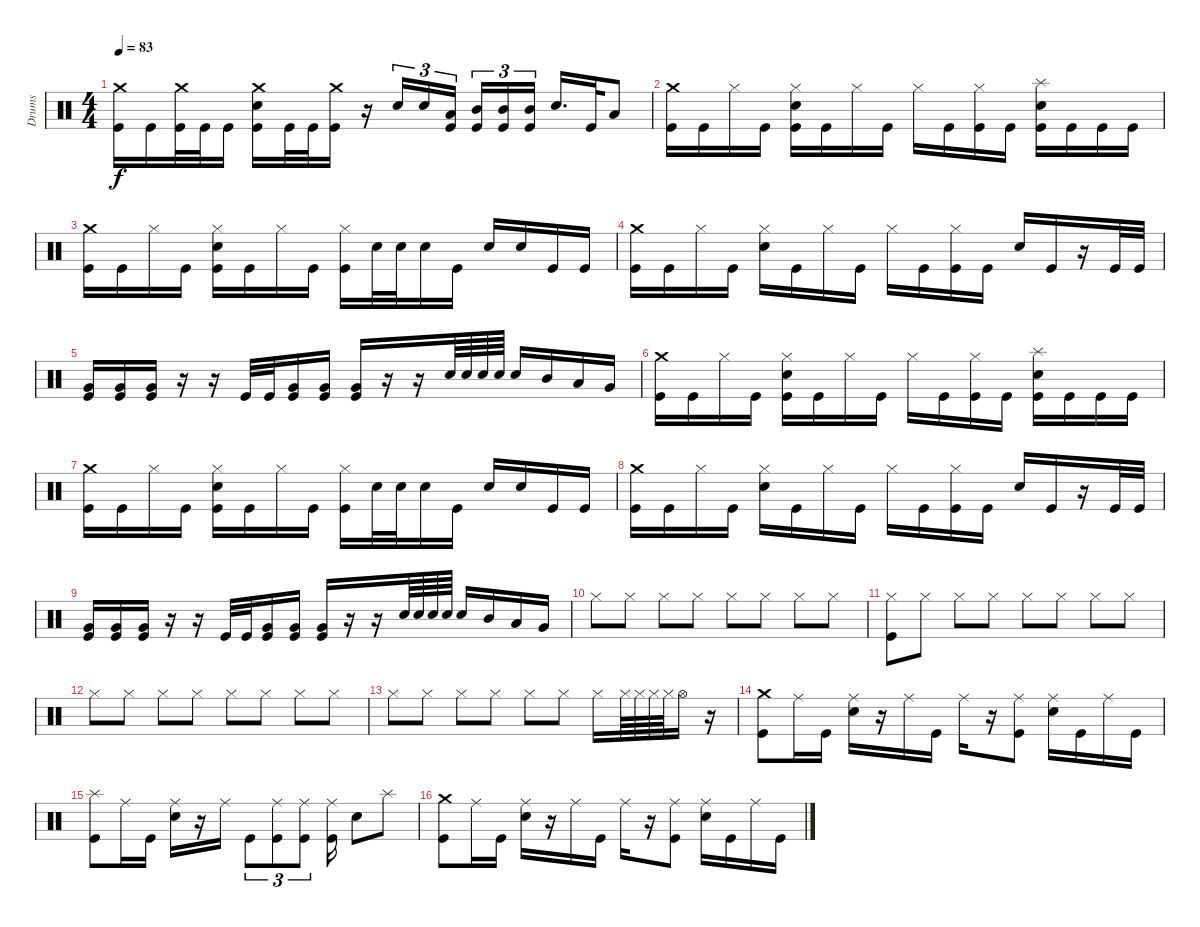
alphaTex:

\track ("Drums" "Drums") {instrument percussion}
\staff {score}
\articulation defaults
\ts (4 4)
\tempo 83
\clef neutral
\ks c
("Crash medium (hit)" "Kick (hit)").16{dy f} "Kick (hit)".16 ("Crash medium (hit)" "Kick (hit)").32 "Kick (hit)".32 "Kick (hit)".16 ("Crash medium (hit)" "Snare (hit) 2" "Kick (hit)").16 "Kick (hit)".32 "Kick (hit)".32 ("Crash medium (hit)" "Kick (hit)").16 r.16 "Snare (hit) 2".16{tu (3 2)} "Snare (hit) 2".16{tu (3 2)} ("Low Tom (hit)" "Kick (hit)").16{tu (3 2) beam splitsecondary} ("Mid Tom (hit)" "Kick (hit)").16{tu (3 2)} ("Mid Tom (hit)" "Kick (hit)").16{tu (3 2)} ("Mid Tom (hit)" "Kick (hit)").16{tu (3 2)} "Snare (hit) 2".16{d} "Kick (hit)".32 "Low Floor Tom (hit)".8 |
("Crash medium (hit)" "Kick (hit)").16 "Kick (hit)".16 "Hi-Hat (closed)".16 "Kick (hit)".16 ("Hi-Hat (closed)" "Snare (hit) 2" "Kick (hit)").16 "Kick (hit)".16 "Hi-Hat (closed)".16 "Kick (hit)".16 "Hi-Hat (closed)".16 "Kick (hit)".16 ("Hi-Hat (closed)" "Kick (hit)").16 "Kick (hit)".16 ("Splash (hit)" "Snare (hit) 2" "Kick (hit)").16 "Kick (hit)".16 "Kick (hit)".16 "Kick (hit)".16 |
("Crash medium (hit)" "Kick (hit)").16 "Kick (hit)".16 "Hi-Hat (closed)".16 "Kick (hit)".16 ("Hi-Hat (closed)" "Snare (hit) 2" "Kick (hit)").16 "Kick (hit)".16 "Hi-Hat (closed)".16 "Kick (hit)".16 ("Hi-Hat (closed)" "Kick (hit)").16 "Snare (hit) 2".32 "Snare (hit) 2".32 "Snare (hit) 2".16 "Kick (hit)".16 "Snare (hit) 2".16 "Snare (hit) 2".16 "Kick (hit)".16 "Kick (hit)".16 |
("Crash medium (hit)" "Kick (hit)").16 "Kick (hit)".16 "Hi-Hat (closed)".16 "Kick (hit)".16 ("Hi-Hat (closed)" "Snare (hit) 2").16 "Kick (hit)".16 "Hi-Hat (closed)".16 "Kick (hit)".16 "Hi-Hat (closed)".16 "Kick (hit)".16 ("Hi-Hat (closed)" "Kick (hit)").16 "Kick (hit)".16 "Snare (hit) 2".16 "Kick (hit)".16 r.16 "Kick (hit)".32 "Kick (hit)".32 |
("Very Low Tom (hit)" "Kick (hit)").16 ("Very Low Tom (hit)" "Kick (hit)").16 ("Very Low Tom (hit)" "Kick (hit)").16 r.16 r.16 "Kick (hit)".32 "Kick (hit)".32 ("Very Low Tom (hit)" "Kick (hit)").16 ("Very Low Tom (hit)" "Kick (hit)").16 ("Very Low Tom (hit)" "Kick (hit)").16 r.16 r.16 "Snare (hit) 2".64 "Snare (hit) 2".64 "Snare (hit) 2".64 "Snare (hit) 2".64 "Snare (hit) 2".16 "Mid Tom (hit)".16 "Low Tom (hit)".16 "Very Low Tom (hit)".16 |
("Crash medium (hit)" "Kick (hit)").16 "Kick (hit)".16 "Hi-Hat (closed)".16 "Kick (hit)".16 ("Hi-Hat (closed)" "Snare (hit) 2" "Kick (hit)").16 "Kick (hit)".16 "Hi-Hat (closed)".16 "Kick (hit)".16 "Hi-Hat (closed)".16 "Kick (hit)".16 ("Hi-Hat (closed)" "Kick (hit)").16 "Kick (hit)".16 ("Splash (hit)" "Snare (hit) 2" "Kick (hit)").16 "Kick (hit)".16 "Kick (hit)".16 "Kick (hit)".16 |
("Crash medium (hit)" "Kick (hit)").16 "Kick (hit)".16 "Hi-Hat (closed)".16 "Kick (hit)".16 ("Hi-Hat (closed)" "Snare (hit) 2" "Kick (hit)").16 "Kick (hit)".16 "Hi-Hat (closed)".16 "Kick (hit)".16 ("Hi-Hat (closed)" "Kick (hit)").16 "Snare (hit) 2".32 "Snare (hit) 2".32 "Snare (hit) 2".16 "Kick (hit)".16 "Snare (hit) 2".16 "Snare (hit) 2".16 "Kick (hit)".16 "Kick (hit)".16 |
("Crash medium (hit)" "Kick (hit)").16 "Kick (hit)".16 "Hi-Hat (closed)".16 "Kick (hit)".16 ("Hi-Hat (closed)" "Snare (hit) 2").16 "Kick (hit)".16 "Hi-Hat (closed)".16 "Kick (hit)".16 "Hi-Hat (closed)".16 "Kick (hit)".16 ("Hi-Hat (closed)" "Kick (hit)").16 "Kick (hit)".16 "Snare (hit) 2".16 "Kick (hit)".16 r.16 "Kick (hit)".32 "Kick (hit)".32 |
("Very Low Tom (hit)" "Kick (hit)").16 ("Very Low Tom (hit)" "Kick (hit)").16 ("Very Low Tom (hit)" "Kick (hit)").16 r.16 r.16 "Kick (hit)".32 "Kick (hit)".32 ("Very Low Tom (hit)" "Kick (hit)").16 ("Very Low Tom (hit)" "Kick (hit)").16 ("Very Low Tom (hit)" "Kick (hit)").16 r.16 r.16 "Snare (hit) 2".64 "Snare (hit) 2".64 "Snare (hit) 2".64 "Snare (hit) 2".64 "Snare (hit) 2".16 "Mid Tom (hit)".16 "Low Tom (hit)".16 "Very Low Tom (hit)".16 |
"Hi-Hat (closed)".8 "Hi-Hat (closed)".8 "Hi-Hat (closed)".8 "Hi-Hat (closed)".8 "Hi-Hat (closed)".8 "Hi-Hat (closed)".8 "Hi-Hat (closed)".8 "Hi-Hat (closed)".8 |
("Hi-Hat (closed)" "Kick (hit)").8 "Hi-Hat (closed)".8 "Hi-Hat (closed)".8 "Hi-Hat (closed)".8 "Hi-Hat (closed)".8 "Hi-Hat (closed)".8 "Hi-Hat (closed)".8 "Hi-Hat (closed)".8 |
"Hi-Hat (closed)".8 "Hi-Hat (closed)".8 "Hi-Hat (closed)".8 "Hi-Hat (closed)".8 "Hi-Hat (closed)".8 "Hi-Hat (closed)".8 "Hi-Hat (closed)".8 "Hi-Hat (closed)".8 |
"Hi-Hat (closed)".8 "Hi-Hat (closed)".8 "Hi-Hat (closed)".8 "Hi-Hat (closed)".8 "Hi-Hat (closed)".8 "Hi-Hat (closed)".8 "Hi-Hat (closed)".16 "Hi-Hat (closed)".64 "Hi-Hat (closed)".64 "Hi-Hat (closed)".64 "Hi-Hat (closed)".64 "Hi-Hat (open)".16 r.16 |
("Crash medium (hit)" "Kick (hit)").8 "Ride (middle)".16 "Kick (hit)".16 ("Ride (middle)" "Snare (hit) 2").16 r.16 "Ride (middle)".16 "Kick (hit)".16 "Ride (middle)".16 r.16 ("Ride (middle)" "Kick (hit)").8 ("Ride (middle)" "Snare (hit) 2").16 "Kick (hit)".16 "Ride (middle)".16 "Kick (hit)".16 |
("Splash (hit)" "Kick (hit)").8 "Ride (middle)".16 "Kick (hit)".16 ("Ride (middle)" "Snare (hit) 2").16 r.16 "Ride (middle)".16 "Kick (hit)".8{tu (3 2)} ("Ride (middle)" "Kick (hit)").8{tu (3 2)} ("Ride (middle)" "Kick (hit)").8{tu (3 2)} ("Ride (middle)" "Kick (hit)").16 "Snare (hit) 2".8 "Splash (hit)".8 |
("Crash medium (hit)" "Kick (hit)").8 "Ride (middle)".16 "Kick (hit)".16 ("Ride (middle)" "Snare (hit) 2").16 r.16 "Ride (middle)".16 "Kick (hit)".16 "Ride (middle)".16 r.16 ("Ride (middle)" "Kick (hit)").8 ("Ride (middle)" "Snare (hit) 2").16 "Kick (hit)".16 "Ride (middle)".16 "Kick (hit)".16
